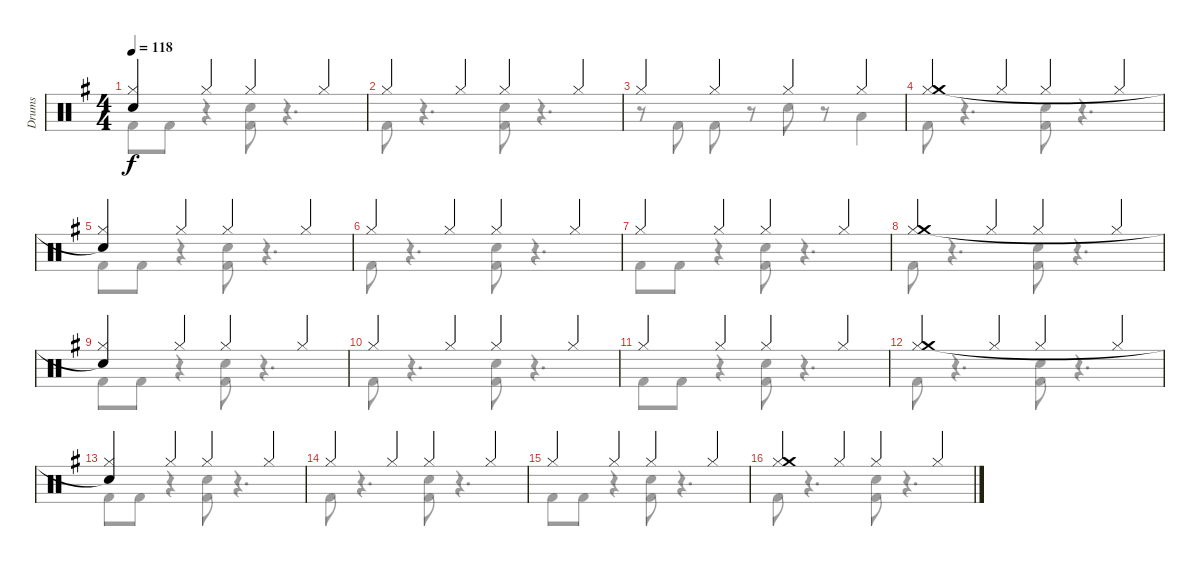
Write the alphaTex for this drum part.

\track ("Drums" "Drums") {instrument percussion}
\staff {score}
\articulation defaults
\voice
\ts (4 4)
\tempo 118
\clef neutral
\ks eminor
("Hi-Hat (closed)" "Snare (hit)"{t}).4{dy f} "Hi-Hat (closed)".4 "Hi-Hat (closed)".4 "Hi-Hat (closed)".4 |
"Hi-Hat (closed)".4 "Hi-Hat (closed)".4 "Hi-Hat (closed)".4 "Hi-Hat (closed)".4 |
"Hi-Hat (closed)".4 "Hi-Hat (closed)".4 "Hi-Hat (closed)".4 "Hi-Hat (closed)".4 |
("Hi-Hat (closed)" "Crash medium (hit)").4 "Hi-Hat (closed)".4 "Hi-Hat (closed)".4 "Hi-Hat (closed)".4 |
("Hi-Hat (closed)" "Snare (hit)"{t}).4 "Hi-Hat (closed)".4 "Hi-Hat (closed)".4 "Hi-Hat (closed)".4 |
"Hi-Hat (closed)".4 "Hi-Hat (closed)".4 "Hi-Hat (closed)".4 "Hi-Hat (closed)".4 |
"Hi-Hat (closed)".4 "Hi-Hat (closed)".4 "Hi-Hat (closed)".4 "Hi-Hat (closed)".4 |
("Hi-Hat (closed)" "Crash medium (hit)").4 "Hi-Hat (closed)".4 "Hi-Hat (closed)".4 "Hi-Hat (closed)".4 |
("Hi-Hat (closed)" "Snare (hit)"{t}).4 "Hi-Hat (closed)".4 "Hi-Hat (closed)".4 "Hi-Hat (closed)".4 |
"Hi-Hat (closed)".4 "Hi-Hat (closed)".4 "Hi-Hat (closed)".4 "Hi-Hat (closed)".4 |
"Hi-Hat (closed)".4 "Hi-Hat (closed)".4 "Hi-Hat (closed)".4 "Hi-Hat (closed)".4 |
("Hi-Hat (closed)" "Crash medium (hit)").4 "Hi-Hat (closed)".4 "Hi-Hat (closed)".4 "Hi-Hat (closed)".4 |
("Hi-Hat (closed)" "Snare (hit)"{t}).4 "Hi-Hat (closed)".4 "Hi-Hat (closed)".4 "Hi-Hat (closed)".4 |
"Hi-Hat (closed)".4 "Hi-Hat (closed)".4 "Hi-Hat (closed)".4 "Hi-Hat (closed)".4 |
"Hi-Hat (closed)".4 "Hi-Hat (closed)".4 "Hi-Hat (closed)".4 "Hi-Hat (closed)".4 |
("Hi-Hat (closed)" "Crash medium (hit)").4 "Hi-Hat (closed)".4 "Hi-Hat (closed)".4 "Hi-Hat (closed)".4
\voice
\clef neutral
\ottava regular
\simile none
\ks eminor "Kick (hit) 2".8{dy f} "Kick (hit) 2".8
r.4 ("Kick (hit) 2" "Electric Snare (hit)").8 r.4{d} |
"Kick (hit) 2".8 r.4{d} ("Kick (hit) 2" "Electric Snare (hit)").8 r.4{d} |
r.8 "Kick (hit) 2".8 "Kick (hit) 2".8 r.8 "Electric Snare (hit)".8 r.8 "Low Tom (hit)".4 |
"Kick (hit) 2".8 r.4{d} ("Kick (hit) 2" "Electric Snare (hit)").8 r.4{d} |
"Kick (hit) 2".8 "Kick (hit) 2".8 r.4 ("Kick (hit) 2" "Electric Snare (hit)").8 r.4{d} |
"Kick (hit) 2".8 r.4{d} ("Kick (hit) 2" "Electric Snare (hit)").8 r.4{d} |
"Kick (hit) 2".8 "Kick (hit) 2".8 r.4 ("Kick (hit) 2" "Electric Snare (hit)").8 r.4{d} |
"Kick (hit) 2".8 r.4{d} ("Kick (hit) 2" "Electric Snare (hit)").8 r.4{d} |
"Kick (hit) 2".8 "Kick (hit) 2".8 r.4 ("Kick (hit) 2" "Electric Snare (hit)").8 r.4{d} |
"Kick (hit) 2".8 r.4{d} ("Kick (hit) 2" "Electric Snare (hit)").8 r.4{d} |
"Kick (hit) 2".8 "Kick (hit) 2".8 r.4 ("Kick (hit) 2" "Electric Snare (hit)").8 r.4{d} |
"Kick (hit) 2".8 r.4{d} ("Kick (hit) 2" "Electric Snare (hit)").8 r.4{d} |
"Kick (hit) 2".8 "Kick (hit) 2".8 r.4 ("Kick (hit) 2" "Electric Snare (hit)").8 r.4{d} |
"Kick (hit) 2".8 r.4{d} ("Kick (hit) 2" "Electric Snare (hit)").8 r.4{d} |
"Kick (hit) 2".8 "Kick (hit) 2".8 r.4 ("Kick (hit) 2" "Electric Snare (hit)").8 r.4{d} |
"Kick (hit) 2".8 r.4{d} ("Kick (hit) 2" "Electric Snare (hit)").8 r.4{d}
